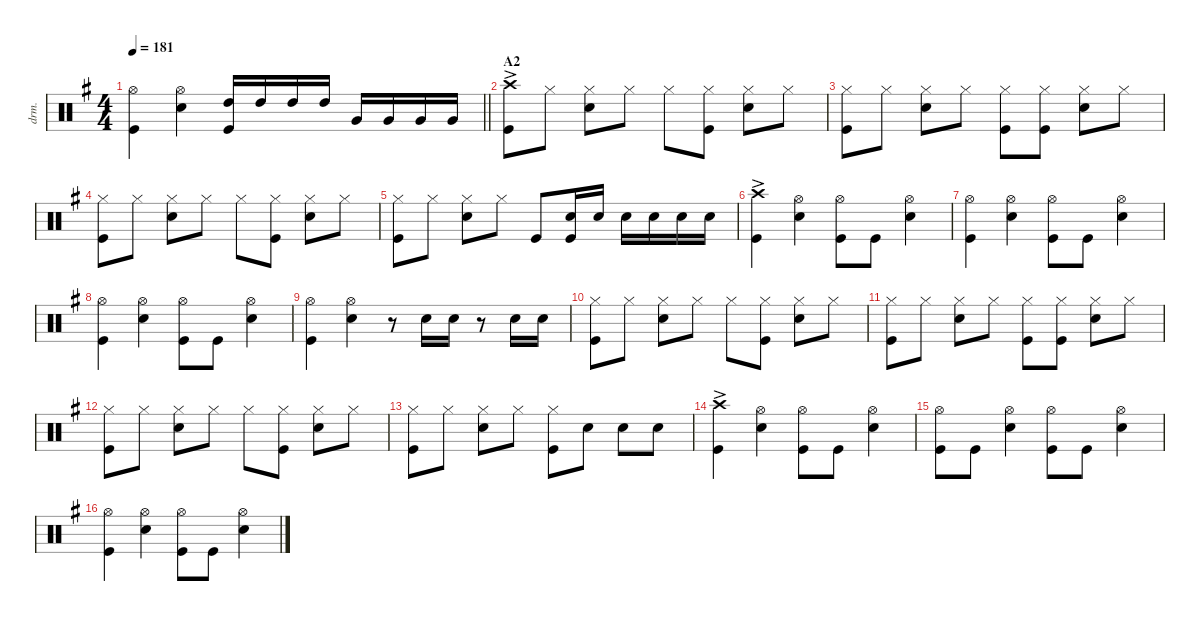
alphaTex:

\defaultSystemsLayout 4
\hideDynamics
\bracketExtendMode nobrackets
\track ("Drums" "drm.") {instrument percussion}
\staff {score}
\articulation defaults
\ts (4 4)
\tempo 181
\clef neutral
\barLineRight lightlight
\ks g
("Hi-Hat (open)"{acc forcenatural} "Kick (hit)"{acc forcenatural}).4{dy f} ("Hi-Hat (open)"{acc forcenatural} "Snare (hit) 2"{acc forcenatural}).4 ("Kick (hit)"{acc forcenatural} "High Tom (hit)"{acc forcenatural}).16 "High Tom (hit)"{acc forcenatural}.16 "High Tom (hit)"{acc forcenatural}.16 "High Tom (hit)"{acc forcenatural}.16 "Very Low Tom (hit)"{acc forcenatural}.16 "Very Low Tom (hit)"{acc forcenatural}.16 "Very Low Tom (hit)"{acc forcenatural}.16 "Very Low Tom (hit)"{acc forcenatural}.16 |
\section ("" "A2")
("Crash high (hit)"{ac acc forcenatural} "Kick (hit)"{acc forcenatural}).8 "Hi-Hat (closed)"{acc forcenatural}.8 ("Snare (hit) 2"{acc forcenatural} "Hi-Hat (closed)"{acc forcenatural}).8 "Hi-Hat (closed)"{acc forcenatural}.8 "Hi-Hat (closed)"{acc forcenatural}.8 ("Kick (hit)"{acc forcenatural} "Hi-Hat (closed)"{acc forcenatural}).8 ("Snare (hit) 2"{acc forcenatural} "Hi-Hat (closed)"{acc forcenatural}).8 "Hi-Hat (closed)"{acc forcenatural}.8 |
("Hi-Hat (closed)"{acc forcenatural} "Kick (hit)"{acc forcenatural}).8 "Hi-Hat (closed)"{acc forcenatural}.8 ("Snare (hit) 2"{acc forcenatural} "Hi-Hat (closed)"{acc forcenatural}).8 "Hi-Hat (closed)"{acc forcenatural}.8 ("Hi-Hat (closed)"{acc forcenatural} "Kick (hit)"{acc forcenatural}).8 ("Kick (hit)"{acc forcenatural} "Hi-Hat (closed)"{acc forcenatural}).8 ("Hi-Hat (closed)"{acc forcenatural} "Snare (hit) 2"{acc forcenatural}).8 "Hi-Hat (closed)"{acc forcenatural}.8 |
("Hi-Hat (closed)"{acc forcenatural} "Kick (hit)"{acc forcenatural}).8 "Hi-Hat (closed)"{acc forcenatural}.8 ("Snare (hit) 2"{acc forcenatural} "Hi-Hat (closed)"{acc forcenatural}).8 "Hi-Hat (closed)"{acc forcenatural}.8 "Hi-Hat (closed)"{acc forcenatural}.8 ("Kick (hit)"{acc forcenatural} "Hi-Hat (closed)"{acc forcenatural}).8 ("Snare (hit) 2"{acc forcenatural} "Hi-Hat (closed)"{acc forcenatural}).8 "Hi-Hat (closed)"{acc forcenatural}.8 |
("Kick (hit)"{acc forcenatural} "Hi-Hat (closed)"{acc forcenatural}).8 "Hi-Hat (closed)"{acc forcenatural}.8 ("Hi-Hat (closed)"{acc forcenatural} "Snare (hit) 2"{acc forcenatural}).8 "Hi-Hat (closed)"{acc forcenatural}.8 "Kick (hit)"{acc forcenatural}.8 ("Snare (hit) 2"{acc forcenatural} "Kick (hit)"{acc forcenatural}).16 "Snare (hit) 2"{acc forcenatural}.16 "Snare (hit) 2"{acc forcenatural}.16 "Snare (hit) 2"{acc forcenatural}.16 "Snare (hit) 2"{acc forcenatural}.16 "Snare (hit) 2"{acc forcenatural}.16 |
("Kick (hit)"{acc forcenatural} "Crash high (hit)"{ac acc forcenatural}).4 ("Hi-Hat (open)"{acc forcenatural} "Snare (hit) 2"{acc forcenatural}).4 ("Kick (hit)"{acc forcenatural} "Hi-Hat (open)"{acc forcenatural}).8 "Kick (hit)"{acc forcenatural}.8 ("Snare (hit) 2"{acc forcenatural} "Hi-Hat (open)"{acc forcenatural}).4 |
("Kick (hit)"{acc forcenatural} "Hi-Hat (open)"{acc forcenatural}).4 ("Hi-Hat (open)"{acc forcenatural} "Snare (hit) 2"{acc forcenatural}).4 ("Kick (hit)"{acc forcenatural} "Hi-Hat (open)"{acc forcenatural}).8 "Kick (hit)"{acc forcenatural}.8 ("Snare (hit) 2"{acc forcenatural} "Hi-Hat (open)"{acc forcenatural}).4 |
("Kick (hit)"{acc forcenatural} "Hi-Hat (open)"{acc forcenatural}).4 ("Hi-Hat (open)"{acc forcenatural} "Snare (hit) 2"{acc forcenatural}).4 ("Kick (hit)"{acc forcenatural} "Hi-Hat (open)"{acc forcenatural}).8 "Kick (hit)"{acc forcenatural}.8 ("Snare (hit) 2"{acc forcenatural} "Hi-Hat (open)"{acc forcenatural}).4 |
("Hi-Hat (open)"{acc forcenatural} "Kick (hit)"{acc forcenatural}).4 ("Hi-Hat (open)"{acc forcenatural} "Snare (hit) 2"{acc forcenatural}).4 r.8 "Snare (hit) 2"{acc forcenatural}.16 "Snare (hit) 2"{acc forcenatural}.16 r.8 "Snare (hit) 2"{acc forcenatural}.16 "Snare (hit) 2"{acc forcenatural}.16 |
("Hi-Hat (closed)"{acc forcenatural} "Kick (hit)"{acc forcenatural}).8 "Hi-Hat (closed)"{acc forcenatural}.8 ("Snare (hit) 2"{acc forcenatural} "Hi-Hat (closed)"{acc forcenatural}).8 "Hi-Hat (closed)"{acc forcenatural}.8 "Hi-Hat (closed)"{acc forcenatural}.8 ("Kick (hit)"{acc forcenatural} "Hi-Hat (closed)"{acc forcenatural}).8 ("Snare (hit) 2"{acc forcenatural} "Hi-Hat (closed)"{acc forcenatural}).8 "Hi-Hat (closed)"{acc forcenatural}.8 |
("Hi-Hat (closed)"{acc forcenatural} "Kick (hit)"{acc forcenatural}).8 "Hi-Hat (closed)"{acc forcenatural}.8 ("Snare (hit) 2"{acc forcenatural} "Hi-Hat (closed)"{acc forcenatural}).8 "Hi-Hat (closed)"{acc forcenatural}.8 ("Hi-Hat (closed)"{acc forcenatural} "Kick (hit)"{acc forcenatural}).8 ("Kick (hit)"{acc forcenatural} "Hi-Hat (closed)"{acc forcenatural}).8 ("Hi-Hat (closed)"{acc forcenatural} "Snare (hit) 2"{acc forcenatural}).8 "Hi-Hat (closed)"{acc forcenatural}.8 |
("Hi-Hat (closed)"{acc forcenatural} "Kick (hit)"{acc forcenatural}).8 "Hi-Hat (closed)"{acc forcenatural}.8 ("Snare (hit) 2"{acc forcenatural} "Hi-Hat (closed)"{acc forcenatural}).8 "Hi-Hat (closed)"{acc forcenatural}.8 "Hi-Hat (closed)"{acc forcenatural}.8 ("Kick (hit)"{acc forcenatural} "Hi-Hat (closed)"{acc forcenatural}).8 ("Snare (hit) 2"{acc forcenatural} "Hi-Hat (closed)"{acc forcenatural}).8 "Hi-Hat (closed)"{acc forcenatural}.8 |
("Kick (hit)"{acc forcenatural} "Hi-Hat (closed)"{acc forcenatural}).8 "Hi-Hat (closed)"{acc forcenatural}.8 ("Snare (hit) 2"{acc forcenatural} "Hi-Hat (closed)"{acc forcenatural}).8 "Hi-Hat (closed)"{acc forcenatural}.8 ("Kick (hit)"{acc forcenatural} "Hi-Hat (closed)"{acc forcenatural}).8 "Snare (hit) 2"{acc forcenatural}.8 "Snare (hit) 2"{acc forcenatural}.8 "Snare (hit) 2"{acc forcenatural}.8 |
("Kick (hit)"{acc forcenatural} "Crash high (hit)"{ac acc forcenatural}).4 ("Hi-Hat (open)"{acc forcenatural} "Snare (hit) 2"{acc forcenatural}).4 ("Kick (hit)"{acc forcenatural} "Hi-Hat (open)"{acc forcenatural}).8 "Kick (hit)"{acc forcenatural}.8 ("Snare (hit) 2"{acc forcenatural} "Hi-Hat (open)"{acc forcenatural}).4 |
("Kick (hit)"{acc forcenatural} "Hi-Hat (open)"{acc forcenatural}).8 "Kick (hit)"{acc forcenatural}.8 ("Hi-Hat (open)"{acc forcenatural} "Snare (hit) 2"{acc forcenatural}).4 ("Kick (hit)"{acc forcenatural} "Hi-Hat (open)"{acc forcenatural}).8 "Kick (hit)"{acc forcenatural}.8 ("Snare (hit) 2"{acc forcenatural} "Hi-Hat (open)"{acc forcenatural}).4 |
("Kick (hit)"{acc forcenatural} "Hi-Hat (open)"{acc forcenatural}).4 ("Hi-Hat (open)"{acc forcenatural} "Snare (hit) 2"{acc forcenatural}).4 ("Kick (hit)"{acc forcenatural} "Hi-Hat (open)"{acc forcenatural}).8 "Kick (hit)"{acc forcenatural}.8 ("Snare (hit) 2"{acc forcenatural} "Hi-Hat (open)"{acc forcenatural}).4
